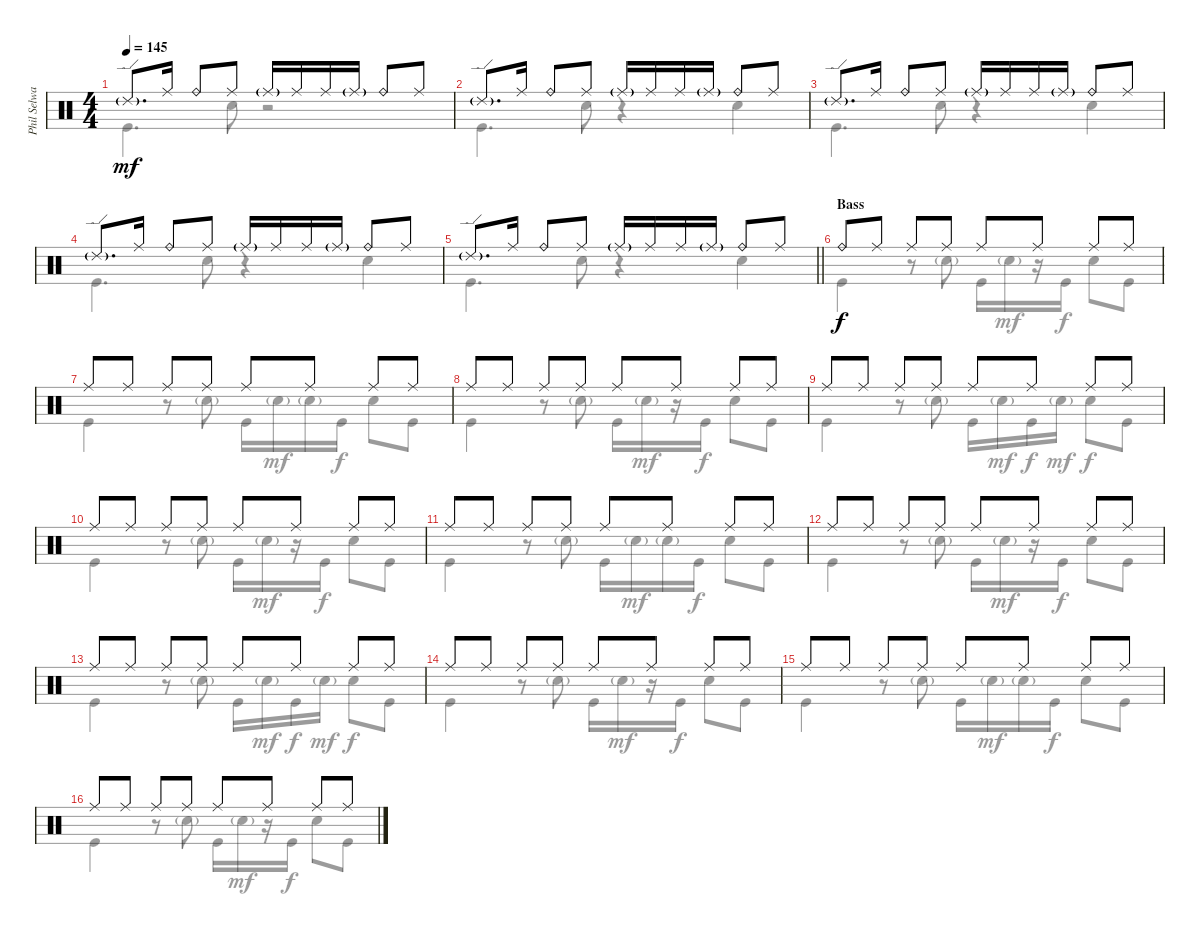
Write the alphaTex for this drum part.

\track ("Phil Selway" "Phil Selwa") {instrument percussion}
\staff {score}
\articulation defaults
\voice
\ts (4 4)
\tempo 145
\clef neutral
\ks c "Ride (edge) 2"{g}.8{d dy mf} "Ride (middle)".16 "Ride (bell)".8 "Ride (middle)".8 "Ride (middle)"{g}.16 "Ride (middle)".16 "Ride (middle)".16 "Ride (middle)"{g}.16 "Ride (bell)".8 "Ride (middle)".8
|
"Ride (edge) 2"{g}.8{d} "Ride (middle)".16 "Ride (bell)".8 "Ride (middle)".8 "Ride (middle)"{g}.16 "Ride (middle)".16 "Ride (middle)".16 "Ride (middle)"{g}.16 "Ride (bell)".8 "Ride (middle)".8 |
"Ride (edge) 2"{g}.8{d} "Ride (middle)".16 "Ride (bell)".8 "Ride (middle)".8 "Ride (middle)"{g}.16 "Ride (middle)".16 "Ride (middle)".16 "Ride (middle)"{g}.16 "Ride (bell)".8 "Ride (middle)".8 |
"Ride (edge) 2"{g}.8{d} "Ride (middle)".16 "Ride (bell)".8 "Ride (middle)".8 "Ride (middle)"{g}.16 "Ride (middle)".16 "Ride (middle)".16 "Ride (middle)"{g}.16 "Ride (bell)".8 "Ride (middle)".8 |
\barLineRight lightlight "Ride (edge) 2"{g}.8{d} "Ride (middle)".16 "Ride (bell)".8 "Ride (middle)".8 "Ride (middle)"{g}.16 "Ride (middle)".16 "Ride (middle)".16 "Ride (middle)"{g}.16 "Ride (bell)".8 "Ride (middle)".8
|
\section ("" "Bass")
"Ride (bell)".8{dy f} "Ride (middle)".8 "Ride (middle)".8 "Ride (middle)".8 "Ride (middle)".8 "Ride (middle)".8 "Ride (middle)".8 "Ride (middle)".8 |
"Ride (middle)".8 "Ride (middle)".8 "Ride (middle)".8 "Ride (middle)".8 "Ride (middle)".8 "Ride (middle)".8 "Ride (middle)".8 "Ride (middle)".8 |
"Ride (middle)".8 "Ride (middle)".8 "Ride (middle)".8 "Ride (middle)".8 "Ride (middle)".8 "Ride (middle)".8 "Ride (middle)".8 "Ride (middle)".8 |
"Ride (middle)".8 "Ride (middle)".8 "Ride (middle)".8 "Ride (middle)".8 "Ride (middle)".8 "Ride (middle)".8 "Ride (middle)".8 "Ride (middle)".8 |
"Ride (middle)".8 "Ride (middle)".8 "Ride (middle)".8 "Ride (middle)".8 "Ride (middle)".8 "Ride (middle)".8 "Ride (middle)".8 "Ride (middle)".8 |
"Ride (middle)".8 "Ride (middle)".8 "Ride (middle)".8 "Ride (middle)".8 "Ride (middle)".8 "Ride (middle)".8 "Ride (middle)".8 "Ride (middle)".8 |
"Ride (middle)".8 "Ride (middle)".8 "Ride (middle)".8 "Ride (middle)".8 "Ride (middle)".8 "Ride (middle)".8 "Ride (middle)".8 "Ride (middle)".8 |
"Ride (middle)".8 "Ride (middle)".8 "Ride (middle)".8 "Ride (middle)".8 "Ride (middle)".8 "Ride (middle)".8 "Ride (middle)".8 "Ride (middle)".8 |
"Ride (middle)".8 "Ride (middle)".8 "Ride (middle)".8 "Ride (middle)".8 "Ride (middle)".8 "Ride (middle)".8 "Ride (middle)".8 "Ride (middle)".8 |
"Ride (middle)".8 "Ride (middle)".8 "Ride (middle)".8 "Ride (middle)".8 "Ride (middle)".8 "Ride (middle)".8 "Ride (middle)".8 "Ride (middle)".8 |
"Ride (middle)".8 "Ride (middle)".8 "Ride (middle)".8 "Ride (middle)".8 "Ride (middle)".8 "Ride (middle)".8 "Ride (middle)".8 "Ride (middle)".8
\voice
\clef neutral
\ottava regular
\simile none
\ks c "Kick (hit)".4{d dy mf} "Snare (hit) 2".8
r.2 |
"Kick (hit)".4{d} "Snare (hit) 2".8 r.4 "Snare (hit) 2".4 |
"Kick (hit)".4{d} "Snare (hit) 2".8 r.4 "Snare (hit) 2".4 |
"Kick (hit)".4{d} "Snare (hit) 2".8 r.4 "Snare (hit) 2".4 |
\barLineRight lightlight "Kick (hit)".4{d} "Snare (hit) 2".8
r.4 "Snare (hit) 2".4 |
"Kick (hit)".4{dy f} r.8 "Snare (hit) 2"{g}.8 "Kick (hit)".16 "Snare (hit) 2"{g}.16{dy mf} r.16 "Kick (hit)".16{dy f} "Snare (hit) 2".8 "Kick (hit)".8 |
"Kick (hit)".4 r.8 "Snare (hit) 2"{g}.8 "Kick (hit)".16 "Snare (hit) 2"{g}.16{dy mf} "Snare (hit) 2"{g}.16 "Kick (hit)".16{dy f} "Snare (hit) 2".8 "Kick (hit)".8 |
"Kick (hit)".4 r.8 "Snare (hit) 2"{g}.8 "Kick (hit)".16 "Snare (hit) 2"{g}.16{dy mf} r.16 "Kick (hit)".16{dy f} "Snare (hit) 2".8 "Kick (hit)".8 |
"Kick (hit)".4 r.8 "Snare (hit) 2"{g}.8 "Kick (hit)".16 "Snare (hit) 2"{g}.16{dy mf} "Kick (hit)".16{dy f} "Snare (hit) 2"{g}.16{dy mf} "Snare (hit) 2".8{dy f} "Kick (hit)".8 |
"Kick (hit)".4 r.8 "Snare (hit) 2"{g}.8 "Kick (hit)".16 "Snare (hit) 2"{g}.16{dy mf} r.16 "Kick (hit)".16{dy f} "Snare (hit) 2".8 "Kick (hit)".8 |
"Kick (hit)".4 r.8 "Snare (hit) 2"{g}.8 "Kick (hit)".16 "Snare (hit) 2"{g}.16{dy mf} "Snare (hit) 2"{g}.16 "Kick (hit)".16{dy f} "Snare (hit) 2".8 "Kick (hit)".8 |
"Kick (hit)".4 r.8 "Snare (hit) 2"{g}.8 "Kick (hit)".16 "Snare (hit) 2"{g}.16{dy mf} r.16 "Kick (hit)".16{dy f} "Snare (hit) 2".8 "Kick (hit)".8 |
"Kick (hit)".4 r.8 "Snare (hit) 2"{g}.8 "Kick (hit)".16 "Snare (hit) 2"{g}.16{dy mf} "Kick (hit)".16{dy f} "Snare (hit) 2"{g}.16{dy mf} "Snare (hit) 2".8{dy f} "Kick (hit)".8 |
"Kick (hit)".4 r.8 "Snare (hit) 2"{g}.8 "Kick (hit)".16 "Snare (hit) 2"{g}.16{dy mf} r.16 "Kick (hit)".16{dy f} "Snare (hit) 2".8 "Kick (hit)".8 |
"Kick (hit)".4 r.8 "Snare (hit) 2"{g}.8 "Kick (hit)".16 "Snare (hit) 2"{g}.16{dy mf} "Snare (hit) 2"{g}.16 "Kick (hit)".16{dy f} "Snare (hit) 2".8 "Kick (hit)".8 |
"Kick (hit)".4 r.8 "Snare (hit) 2"{g}.8 "Kick (hit)".16 "Snare (hit) 2"{g}.16{dy mf} r.16 "Kick (hit)".16{dy f} "Snare (hit) 2".8 "Kick (hit)".8
